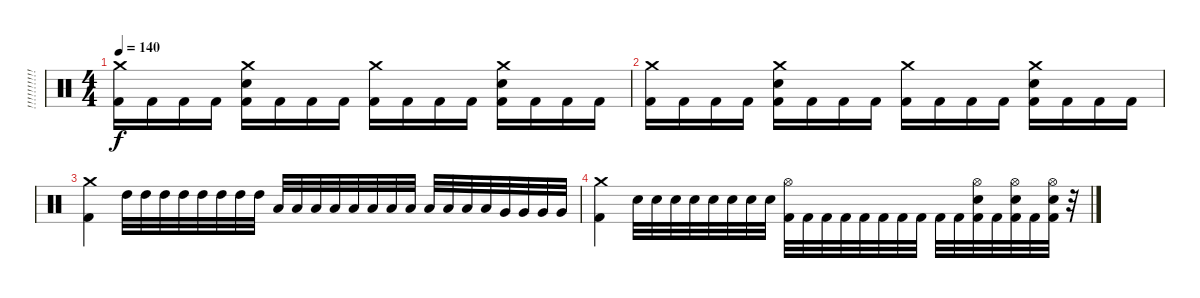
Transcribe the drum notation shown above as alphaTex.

\track ("!!!!!!!!!!!! 4" "!!!!!!!!!!") {instrument percussion}
\staff {score}
\articulation defaults
\ts (4 4)
\tempo 140
\clef neutral
\ks c
("Crash medium (hit)" "Kick (hit) 2").16{dy f} "Kick (hit) 2".16 "Kick (hit) 2".16 "Kick (hit) 2".16 ("Crash medium (hit)" "Electric Snare (hit)" "Kick (hit) 2").16 "Kick (hit) 2".16 "Kick (hit) 2".16 "Kick (hit) 2".16 ("Crash medium (hit)" "Kick (hit) 2").16 "Kick (hit) 2".16 "Kick (hit) 2".16 "Kick (hit) 2".16 ("Crash medium (hit)" "Electric Snare (hit)" "Kick (hit) 2").16 "Kick (hit) 2".16 "Kick (hit) 2".16 "Kick (hit) 2".16 |
("Crash medium (hit)" "Kick (hit) 2").16 "Kick (hit) 2".16 "Kick (hit) 2".16 "Kick (hit) 2".16 ("Crash medium (hit)" "Electric Snare (hit)" "Kick (hit) 2").16 "Kick (hit) 2".16 "Kick (hit) 2".16 "Kick (hit) 2".16 ("Crash medium (hit)" "Kick (hit) 2").16 "Kick (hit) 2".16 "Kick (hit) 2".16 "Kick (hit) 2".16 ("Crash medium (hit)" "Electric Snare (hit)" "Kick (hit) 2").16 "Kick (hit) 2".16 "Kick (hit) 2".16 "Kick (hit) 2".16 |
("Kick (hit) 2" "Crash medium (hit)").4 "High Tom (hit)".32 "High Tom (hit)".32 "High Tom (hit)".32 "High Tom (hit)".32 "High Tom (hit)".32 "High Tom (hit)".32 "High Tom (hit)".32 "High Tom (hit)".32 "Low Tom (hit)".32 "Low Tom (hit)".32 "Low Tom (hit)".32 "Low Tom (hit)".32 "Low Tom (hit)".32 "Low Tom (hit)".32 "Low Tom (hit)".32 "Low Tom (hit)".32 "Low Floor Tom (hit)".32 "Low Floor Tom (hit)".32 "Low Floor Tom (hit)".32 "Low Floor Tom (hit)".32 "Very Low Tom (hit)".32 "Very Low Tom (hit)".32 "Very Low Tom (hit)".32 "Very Low Tom (hit)".32 |
("Kick (hit) 2" "Crash medium (hit)").4 "Electric Snare (hit)".32 "Electric Snare (hit)".32 "Electric Snare (hit)".32 "Electric Snare (hit)".32 "Electric Snare (hit)".32 "Electric Snare (hit)".32 "Electric Snare (hit)".32 "Electric Snare (hit)".32 ("Kick (hit) 2" "Hi-Hat (open)").32 "Kick (hit) 2".32 "Kick (hit) 2".32 "Kick (hit) 2".32 "Kick (hit) 2".32 "Kick (hit) 2".32 "Kick (hit) 2".32 "Kick (hit) 2".32 "Kick (hit) 2".32 "Kick (hit) 2".32 ("Hi-Hat (open)" "Kick (hit) 2" "Electric Snare (hit)").32 "Kick (hit) 2".32 ("Hi-Hat (open)" "Kick (hit) 2" "Electric Snare (hit)").32 "Kick (hit) 2".32 ("Hi-Hat (open)" "Kick (hit) 2" "Electric Snare (hit)").32 r.32
